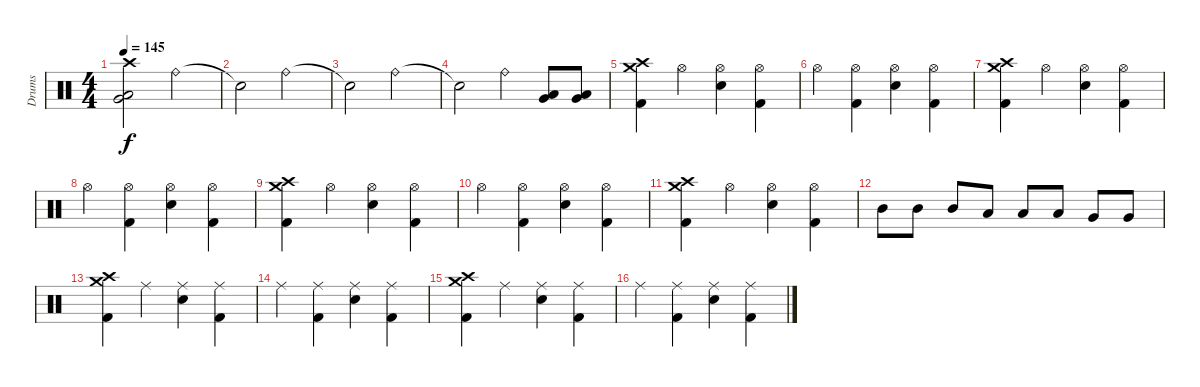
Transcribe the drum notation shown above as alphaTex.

\track ("Drums" "Drums") {instrument percussion}
\staff {score}
\articulation defaults
\ts (4 4)
\tempo 145
\clef neutral
\ks c
("Crash high (hit)" "Very Low Tom (hit)" "Low Tom (hit)").2{dy f} "Ride (bell)".2 |
"Snare (hit)"{t}.2 "Ride (bell)".2 |
"Snare (hit)"{t}.2 "Ride (bell)".2 |
"Snare (hit)"{t}.2 "Ride (bell)".4 ("Very Low Tom (hit)" "Low Tom (hit)").8 ("Very Low Tom (hit)" "Low Tom (hit)").8 |
("Crash medium (hit)" "Crash high (hit)" "Kick (hit) 2").4 "Hi-Hat (open)".4 ("Hi-Hat (open)" "Snare (hit) 2").4 ("Hi-Hat (open)" "Kick (hit) 2").4 |
"Hi-Hat (open)".4 ("Hi-Hat (open)" "Kick (hit) 2").4 ("Hi-Hat (open)" "Snare (hit) 2").4 ("Hi-Hat (open)" "Kick (hit) 2").4 |
("Crash medium (hit)" "Crash high (hit)" "Kick (hit) 2").4 "Hi-Hat (open)".4 ("Hi-Hat (open)" "Snare (hit) 2").4 ("Hi-Hat (open)" "Kick (hit) 2").4 |
"Hi-Hat (open)".4 ("Hi-Hat (open)" "Kick (hit) 2").4 ("Hi-Hat (open)" "Snare (hit) 2").4 ("Hi-Hat (open)" "Kick (hit) 2").4 |
("Crash medium (hit)" "Crash high (hit)" "Kick (hit) 2").4 "Hi-Hat (open)".4 ("Hi-Hat (open)" "Snare (hit) 2").4 ("Hi-Hat (open)" "Kick (hit) 2").4 |
"Hi-Hat (open)".4 ("Hi-Hat (open)" "Kick (hit) 2").4 ("Hi-Hat (open)" "Snare (hit) 2").4 ("Hi-Hat (open)" "Kick (hit) 2").4 |
("Crash medium (hit)" "Crash high (hit)" "Kick (hit) 2").4 "Hi-Hat (open)".4 ("Hi-Hat (open)" "Snare (hit) 2").4 ("Hi-Hat (open)" "Kick (hit) 2").4 |
"Mid Tom (hit)".8 "Mid Tom (hit)".8 "Mid Tom (hit)".8 "Low Tom (hit)".8 "Low Tom (hit)".8 "Low Tom (hit)".8 "Very Low Tom (hit)".8 "Very Low Tom (hit)".8 |
("Crash medium (hit)" "Crash high (hit)" "Kick (hit) 2").4 "Ride (middle)".4 ("Ride (middle)" "Snare (hit) 2").4 ("Ride (middle)" "Kick (hit) 2").4 |
"Ride (middle)".4 ("Ride (middle)" "Kick (hit) 2").4 ("Ride (middle)" "Snare (hit) 2").4 ("Ride (middle)" "Kick (hit) 2").4 |
("Crash medium (hit)" "Crash high (hit)" "Kick (hit) 2").4 "Ride (middle)".4 ("Ride (middle)" "Snare (hit) 2").4 ("Ride (middle)" "Kick (hit) 2").4 |
"Ride (middle)".4 ("Ride (middle)" "Kick (hit) 2").4 ("Ride (middle)" "Snare (hit) 2").4 ("Ride (middle)" "Kick (hit) 2").4
